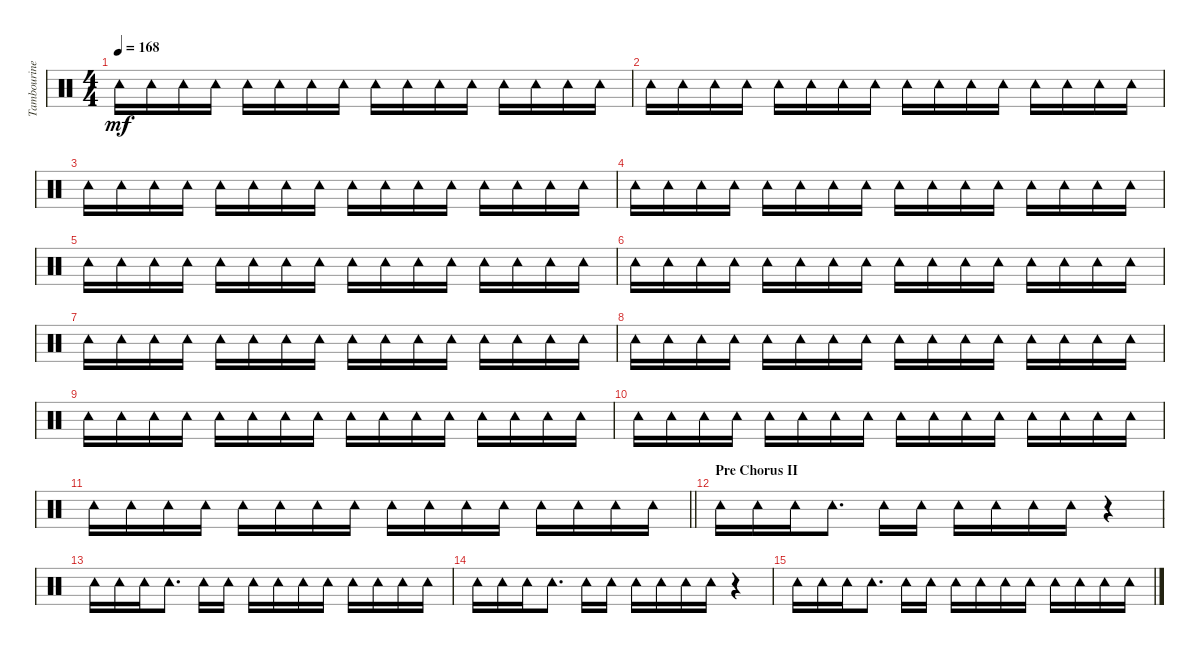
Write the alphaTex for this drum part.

\track ("Tambourine" "Tambourine") {instrument percussion}
\staff {score}
\articulation defaults
\ts (4 4)
\tempo 168
\clef neutral
\ks c "Tambourine (hit)".16{dy mf} "Tambourine (hit)".16 "Tambourine (hit)".16 "Tambourine (hit)".16 "Tambourine (hit)".16 "Tambourine (hit)".16 "Tambourine (hit)".16 "Tambourine (hit)".16 "Tambourine (hit)".16 "Tambourine (hit)".16 "Tambourine (hit)".16 "Tambourine (hit)".16 "Tambourine (hit)".16 "Tambourine (hit)".16 "Tambourine (hit)".16 "Tambourine (hit)".16
|
"Tambourine (hit)".16 "Tambourine (hit)".16 "Tambourine (hit)".16 "Tambourine (hit)".16 "Tambourine (hit)".16 "Tambourine (hit)".16 "Tambourine (hit)".16 "Tambourine (hit)".16 "Tambourine (hit)".16 "Tambourine (hit)".16 "Tambourine (hit)".16 "Tambourine (hit)".16 "Tambourine (hit)".16 "Tambourine (hit)".16 "Tambourine (hit)".16 "Tambourine (hit)".16 |
"Tambourine (hit)".16 "Tambourine (hit)".16 "Tambourine (hit)".16 "Tambourine (hit)".16 "Tambourine (hit)".16 "Tambourine (hit)".16 "Tambourine (hit)".16 "Tambourine (hit)".16 "Tambourine (hit)".16 "Tambourine (hit)".16 "Tambourine (hit)".16 "Tambourine (hit)".16 "Tambourine (hit)".16 "Tambourine (hit)".16 "Tambourine (hit)".16 "Tambourine (hit)".16 |
"Tambourine (hit)".16 "Tambourine (hit)".16 "Tambourine (hit)".16 "Tambourine (hit)".16 "Tambourine (hit)".16 "Tambourine (hit)".16 "Tambourine (hit)".16 "Tambourine (hit)".16 "Tambourine (hit)".16 "Tambourine (hit)".16 "Tambourine (hit)".16 "Tambourine (hit)".16 "Tambourine (hit)".16 "Tambourine (hit)".16 "Tambourine (hit)".16 "Tambourine (hit)".16 |
"Tambourine (hit)".16 "Tambourine (hit)".16 "Tambourine (hit)".16 "Tambourine (hit)".16 "Tambourine (hit)".16 "Tambourine (hit)".16 "Tambourine (hit)".16 "Tambourine (hit)".16 "Tambourine (hit)".16 "Tambourine (hit)".16 "Tambourine (hit)".16 "Tambourine (hit)".16 "Tambourine (hit)".16 "Tambourine (hit)".16 "Tambourine (hit)".16 "Tambourine (hit)".16 |
"Tambourine (hit)".16 "Tambourine (hit)".16 "Tambourine (hit)".16 "Tambourine (hit)".16 "Tambourine (hit)".16 "Tambourine (hit)".16 "Tambourine (hit)".16 "Tambourine (hit)".16 "Tambourine (hit)".16 "Tambourine (hit)".16 "Tambourine (hit)".16 "Tambourine (hit)".16 "Tambourine (hit)".16 "Tambourine (hit)".16 "Tambourine (hit)".16 "Tambourine (hit)".16 |
"Tambourine (hit)".16 "Tambourine (hit)".16 "Tambourine (hit)".16 "Tambourine (hit)".16 "Tambourine (hit)".16 "Tambourine (hit)".16 "Tambourine (hit)".16 "Tambourine (hit)".16 "Tambourine (hit)".16 "Tambourine (hit)".16 "Tambourine (hit)".16 "Tambourine (hit)".16 "Tambourine (hit)".16 "Tambourine (hit)".16 "Tambourine (hit)".16 "Tambourine (hit)".16 |
"Tambourine (hit)".16 "Tambourine (hit)".16 "Tambourine (hit)".16 "Tambourine (hit)".16 "Tambourine (hit)".16 "Tambourine (hit)".16 "Tambourine (hit)".16 "Tambourine (hit)".16 "Tambourine (hit)".16 "Tambourine (hit)".16 "Tambourine (hit)".16 "Tambourine (hit)".16 "Tambourine (hit)".16 "Tambourine (hit)".16 "Tambourine (hit)".16 "Tambourine (hit)".16 |
"Tambourine (hit)".16 "Tambourine (hit)".16 "Tambourine (hit)".16 "Tambourine (hit)".16 "Tambourine (hit)".16 "Tambourine (hit)".16 "Tambourine (hit)".16 "Tambourine (hit)".16 "Tambourine (hit)".16 "Tambourine (hit)".16 "Tambourine (hit)".16 "Tambourine (hit)".16 "Tambourine (hit)".16 "Tambourine (hit)".16 "Tambourine (hit)".16 "Tambourine (hit)".16 |
"Tambourine (hit)".16 "Tambourine (hit)".16 "Tambourine (hit)".16 "Tambourine (hit)".16 "Tambourine (hit)".16 "Tambourine (hit)".16 "Tambourine (hit)".16 "Tambourine (hit)".16 "Tambourine (hit)".16 "Tambourine (hit)".16 "Tambourine (hit)".16 "Tambourine (hit)".16 "Tambourine (hit)".16 "Tambourine (hit)".16 "Tambourine (hit)".16 "Tambourine (hit)".16 |
\barLineRight lightlight "Tambourine (hit)".16 "Tambourine (hit)".16 "Tambourine (hit)".16 "Tambourine (hit)".16 "Tambourine (hit)".16 "Tambourine (hit)".16 "Tambourine (hit)".16 "Tambourine (hit)".16 "Tambourine (hit)".16 "Tambourine (hit)".16 "Tambourine (hit)".16 "Tambourine (hit)".16 "Tambourine (hit)".16 "Tambourine (hit)".16 "Tambourine (hit)".16 "Tambourine (hit)".16
|
\section ("" "Pre Chorus II")
"Tambourine (hit)".16 "Tambourine (hit)".16 "Tambourine (hit)".16 "Tambourine (hit)".8{d} "Tambourine (hit)".16 "Tambourine (hit)".16 "Tambourine (hit)".16 "Tambourine (hit)".16 "Tambourine (hit)".16 "Tambourine (hit)".16 r.4 |
"Tambourine (hit)".16 "Tambourine (hit)".16 "Tambourine (hit)".16 "Tambourine (hit)".8{d} "Tambourine (hit)".16 "Tambourine (hit)".16 "Tambourine (hit)".16 "Tambourine (hit)".16 "Tambourine (hit)".16 "Tambourine (hit)".16 "Tambourine (hit)".16 "Tambourine (hit)".16 "Tambourine (hit)".16 "Tambourine (hit)".16 |
"Tambourine (hit)".16 "Tambourine (hit)".16 "Tambourine (hit)".16 "Tambourine (hit)".8{d} "Tambourine (hit)".16 "Tambourine (hit)".16 "Tambourine (hit)".16 "Tambourine (hit)".16 "Tambourine (hit)".16 "Tambourine (hit)".16 r.4 |
"Tambourine (hit)".16 "Tambourine (hit)".16 "Tambourine (hit)".16 "Tambourine (hit)".8{d} "Tambourine (hit)".16 "Tambourine (hit)".16 "Tambourine (hit)".16 "Tambourine (hit)".16 "Tambourine (hit)".16 "Tambourine (hit)".16 "Tambourine (hit)".16 "Tambourine (hit)".16 "Tambourine (hit)".16 "Tambourine (hit)".16
